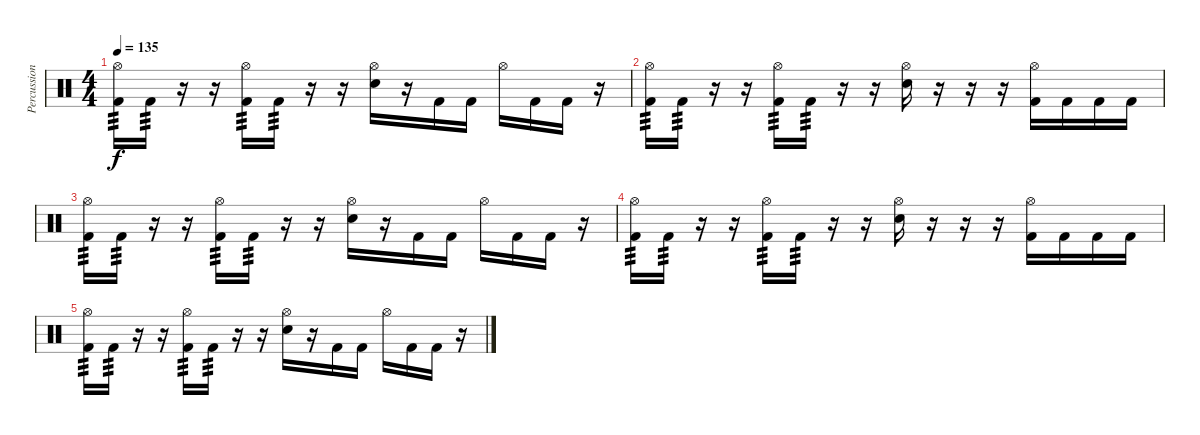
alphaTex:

\track ("Percussion" "Percussion") {instrument percussion}
\staff {score}
\articulation defaults
\ts (4 4)
\tempo 135
\clef neutral
\ks c
("Hi-Hat (open)" "Kick (hit) 2").16{tp 3 dy f volume 5} "Kick (hit) 2".16{tp 3} r.16 r.16 ("Hi-Hat (open)" "Kick (hit) 2").16{tp 3} "Kick (hit) 2".16{tp 3} r.16 r.16 ("Hi-Hat (open)" "Electric Snare (hit)").16 r.16 "Kick (hit) 2".16 "Kick (hit) 2".16 "Hi-Hat (open)".16 "Kick (hit) 2".16 "Kick (hit) 2".16 r.16 |
("Hi-Hat (open)" "Kick (hit) 2").16{tp 3 volume 3} "Kick (hit) 2".16{tp 3} r.16 r.16 ("Hi-Hat (open)" "Kick (hit) 2").16{tp 3} "Kick (hit) 2".16{tp 3} r.16 r.16 ("Hi-Hat (open)" "Electric Snare (hit)").16 r.16 r.16 r.16 ("Hi-Hat (open)" "Kick (hit) 2").16 "Kick (hit) 2".16 "Kick (hit) 2".16 "Kick (hit) 2".16 |
("Hi-Hat (open)" "Kick (hit) 2").16{tp 3 volume 3} "Kick (hit) 2".16{tp 3} r.16 r.16 ("Hi-Hat (open)" "Kick (hit) 2").16{tp 3} "Kick (hit) 2".16{tp 3} r.16 r.16 ("Hi-Hat (open)" "Electric Snare (hit)").16 r.16 "Kick (hit) 2".16 "Kick (hit) 2".16 "Hi-Hat (open)".16 "Kick (hit) 2".16 "Kick (hit) 2".16 r.16 |
("Hi-Hat (open)" "Kick (hit) 2").16{tp 3 volume 3} "Kick (hit) 2".16{tp 3} r.16 r.16 ("Hi-Hat (open)" "Kick (hit) 2").16{tp 3} "Kick (hit) 2".16{tp 3} r.16 r.16 ("Hi-Hat (open)" "Electric Snare (hit)").16 r.16 r.16 r.16 ("Hi-Hat (open)" "Kick (hit) 2").16 "Kick (hit) 2".16 "Kick (hit) 2".16 "Kick (hit) 2".16 |
("Hi-Hat (open)" "Kick (hit) 2").16{tp 3 volume 3} "Kick (hit) 2".16{tp 3} r.16 r.16 ("Hi-Hat (open)" "Kick (hit) 2").16{tp 3} "Kick (hit) 2".16{tp 3} r.16 r.16 ("Hi-Hat (open)" "Electric Snare (hit)").16 r.16 "Kick (hit) 2".16 "Kick (hit) 2".16 "Hi-Hat (open)".16 "Kick (hit) 2".16 "Kick (hit) 2".16 r.16
